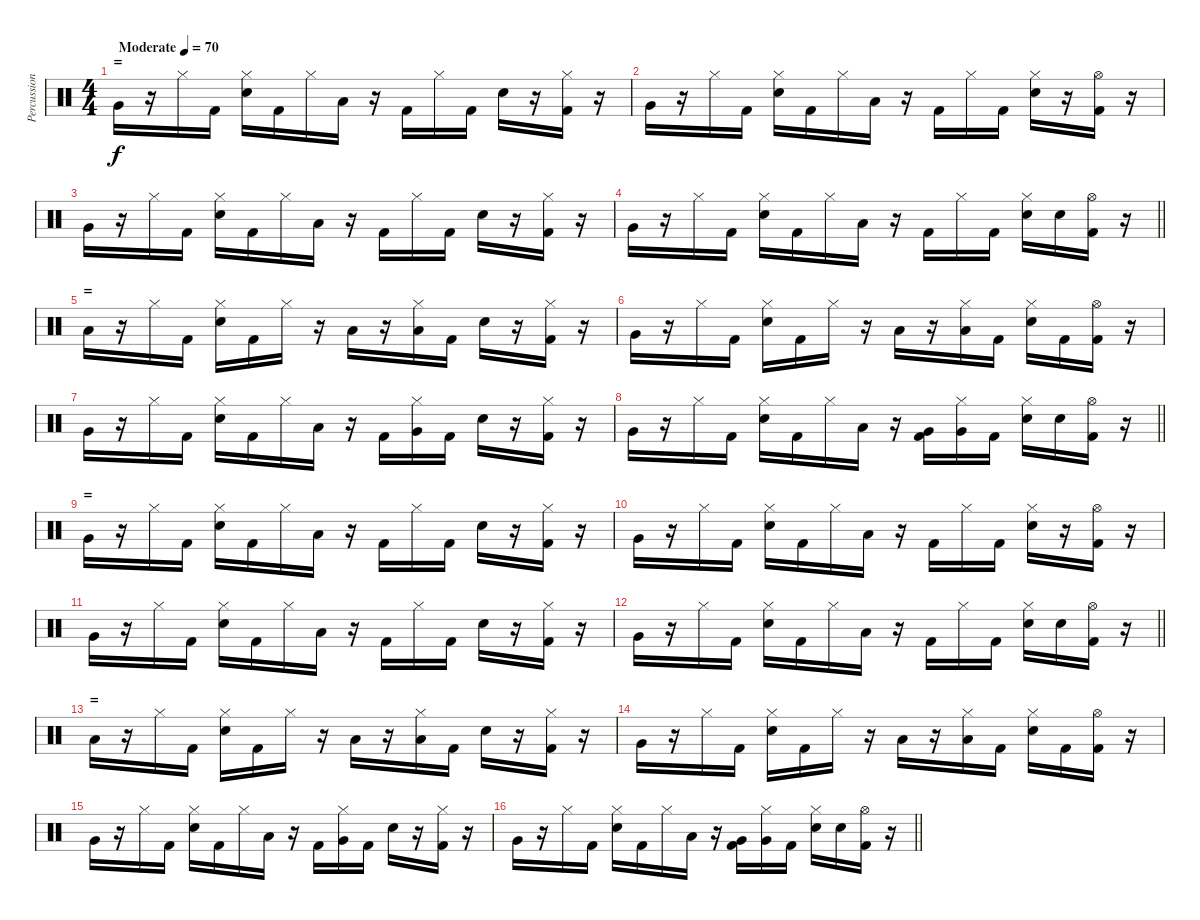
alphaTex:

\track ("Percussion" "Percussion") {instrument percussion}
\staff {score}
\articulation defaults
\ts (4 4)
\section ("" "=")
\tempo (70 "Moderate")
\clef neutral
\ks c "Very Low Tom (hit)".16{dy f}
r.16 "Hi-Hat (closed)".16 "Kick (hit) 2".16 ("Electric Snare (hit)" "Hi-Hat (closed)").16 "Kick (hit) 2".16 "Hi-Hat (closed)".16 "Low Floor Tom (hit)".16 r.16 "Kick (hit) 2".16 "Hi-Hat (closed)".16 "Kick (hit) 2".16 "Electric Snare (hit)".16 r.16 ("Kick (hit) 2" "Hi-Hat (closed)").16 r.16 |
"Very Low Tom (hit)".16 r.16 "Hi-Hat (closed)".16 "Kick (hit) 2".16 ("Electric Snare (hit)" "Hi-Hat (closed)").16 "Kick (hit) 2".16 "Hi-Hat (closed)".16 "Low Floor Tom (hit)".16 r.16 "Kick (hit) 2".16 "Hi-Hat (closed)".16 "Kick (hit) 2".16 ("Electric Snare (hit)" "Hi-Hat (closed)").16 r.16 ("Kick (hit) 2" "Hi-Hat (open)").16 r.16 |
"Very Low Tom (hit)".16 r.16 "Hi-Hat (closed)".16 "Kick (hit) 2".16 ("Electric Snare (hit)" "Hi-Hat (closed)").16 "Kick (hit) 2".16 "Hi-Hat (closed)".16 "Low Floor Tom (hit)".16 r.16 "Kick (hit) 2".16 "Hi-Hat (closed)".16 "Kick (hit) 2".16 "Electric Snare (hit)".16 r.16 ("Kick (hit) 2" "Hi-Hat (closed)").16 r.16 |
\barLineRight lightlight "Very Low Tom (hit)".16
r.16 "Hi-Hat (closed)".16 "Kick (hit) 2".16 ("Electric Snare (hit)" "Hi-Hat (closed)").16 "Kick (hit) 2".16 "Hi-Hat (closed)".16 "Low Floor Tom (hit)".16 r.16 "Kick (hit) 2".16 "Hi-Hat (closed)".16 "Kick (hit) 2".16 ("Electric Snare (hit)" "Hi-Hat (closed)").16 "Electric Snare (hit)".16 ("Kick (hit) 2" "Hi-Hat (open)").16 r.16 |
\section ("" "=")
"Low Floor Tom (hit)".16 r.16 "Hi-Hat (closed)".16 "Kick (hit) 2".16 ("Electric Snare (hit)" "Hi-Hat (closed)").16 "Kick (hit) 2".16 "Hi-Hat (closed)".16 r.16 "Low Floor Tom (hit)".16 r.16 ("Low Floor Tom (hit)" "Hi-Hat (closed)").16 "Kick (hit) 2".16 "Electric Snare (hit)".16 r.16 ("Kick (hit) 2" "Hi-Hat (closed)").16 r.16 |
"Very Low Tom (hit)".16 r.16 "Hi-Hat (closed)".16 "Kick (hit) 2".16 ("Electric Snare (hit)" "Hi-Hat (closed)").16 "Kick (hit) 2".16 "Hi-Hat (closed)".16 r.16 "Low Floor Tom (hit)".16 r.16 ("Low Floor Tom (hit)" "Hi-Hat (closed)").16 "Kick (hit) 2".16 ("Electric Snare (hit)" "Hi-Hat (closed)").16 "Kick (hit) 2".16 ("Kick (hit) 2" "Hi-Hat (open)").16 r.16 |
"Very Low Tom (hit)".16 r.16 "Hi-Hat (closed)".16 "Kick (hit) 2".16 ("Electric Snare (hit)" "Hi-Hat (closed)").16 "Kick (hit) 2".16 "Hi-Hat (closed)".16 "Low Floor Tom (hit)".16 r.16 "Kick (hit) 2".16 ("Very Low Tom (hit)" "Hi-Hat (closed)").16 "Kick (hit) 2".16 "Electric Snare (hit)".16 r.16 ("Kick (hit) 2" "Hi-Hat (closed)").16 r.16 |
\barLineRight lightlight "Very Low Tom (hit)".16
r.16 "Hi-Hat (closed)".16 "Kick (hit) 2".16 ("Electric Snare (hit)" "Hi-Hat (closed)").16 "Kick (hit) 2".16 "Hi-Hat (closed)".16 "Low Floor Tom (hit)".16 r.16 ("Kick (hit) 2" "Very Low Tom (hit)").16 ("Very Low Tom (hit)" "Hi-Hat (closed)").16 "Kick (hit) 2".16 ("Electric Snare (hit)" "Hi-Hat (closed)").16 "Electric Snare (hit)".16 ("Kick (hit) 2" "Hi-Hat (open)").16 r.16 |
\section ("" "=")
"Very Low Tom (hit)".16 r.16 "Hi-Hat (closed)".16 "Kick (hit) 2".16 ("Electric Snare (hit)" "Hi-Hat (closed)").16 "Kick (hit) 2".16 "Hi-Hat (closed)".16 "Low Floor Tom (hit)".16 r.16 "Kick (hit) 2".16 "Hi-Hat (closed)".16 "Kick (hit) 2".16 "Electric Snare (hit)".16 r.16 ("Kick (hit) 2" "Hi-Hat (closed)").16 r.16 |
"Very Low Tom (hit)".16 r.16 "Hi-Hat (closed)".16 "Kick (hit) 2".16 ("Electric Snare (hit)" "Hi-Hat (closed)").16 "Kick (hit) 2".16 "Hi-Hat (closed)".16 "Low Floor Tom (hit)".16 r.16 "Kick (hit) 2".16 "Hi-Hat (closed)".16 "Kick (hit) 2".16 ("Electric Snare (hit)" "Hi-Hat (closed)").16 r.16 ("Kick (hit) 2" "Hi-Hat (open)").16 r.16 |
"Very Low Tom (hit)".16 r.16 "Hi-Hat (closed)".16 "Kick (hit) 2".16 ("Electric Snare (hit)" "Hi-Hat (closed)").16 "Kick (hit) 2".16 "Hi-Hat (closed)".16 "Low Floor Tom (hit)".16 r.16 "Kick (hit) 2".16 "Hi-Hat (closed)".16 "Kick (hit) 2".16 "Electric Snare (hit)".16 r.16 ("Kick (hit) 2" "Hi-Hat (closed)").16 r.16 |
\barLineRight lightlight "Very Low Tom (hit)".16
r.16 "Hi-Hat (closed)".16 "Kick (hit) 2".16 ("Electric Snare (hit)" "Hi-Hat (closed)").16 "Kick (hit) 2".16 "Hi-Hat (closed)".16 "Low Floor Tom (hit)".16 r.16 "Kick (hit) 2".16 "Hi-Hat (closed)".16 "Kick (hit) 2".16 ("Electric Snare (hit)" "Hi-Hat (closed)").16 "Electric Snare (hit)".16 ("Kick (hit) 2" "Hi-Hat (open)").16 r.16 |
\section ("" "=")
"Low Floor Tom (hit)".16 r.16 "Hi-Hat (closed)".16 "Kick (hit) 2".16 ("Electric Snare (hit)" "Hi-Hat (closed)").16 "Kick (hit) 2".16 "Hi-Hat (closed)".16 r.16 "Low Floor Tom (hit)".16 r.16 ("Low Floor Tom (hit)" "Hi-Hat (closed)").16 "Kick (hit) 2".16 "Electric Snare (hit)".16 r.16 ("Kick (hit) 2" "Hi-Hat (closed)").16 r.16 |
"Very Low Tom (hit)".16 r.16 "Hi-Hat (closed)".16 "Kick (hit) 2".16 ("Electric Snare (hit)" "Hi-Hat (closed)").16 "Kick (hit) 2".16 "Hi-Hat (closed)".16 r.16 "Low Floor Tom (hit)".16 r.16 ("Low Floor Tom (hit)" "Hi-Hat (closed)").16 "Kick (hit) 2".16 ("Electric Snare (hit)" "Hi-Hat (closed)").16 "Kick (hit) 2".16 ("Kick (hit) 2" "Hi-Hat (open)").16 r.16 |
"Very Low Tom (hit)".16 r.16 "Hi-Hat (closed)".16 "Kick (hit) 2".16 ("Electric Snare (hit)" "Hi-Hat (closed)").16 "Kick (hit) 2".16 "Hi-Hat (closed)".16 "Low Floor Tom (hit)".16 r.16 "Kick (hit) 2".16 ("Very Low Tom (hit)" "Hi-Hat (closed)").16 "Kick (hit) 2".16 "Electric Snare (hit)".16 r.16 ("Kick (hit) 2" "Hi-Hat (closed)").16 r.16 |
\barLineRight lightlight "Very Low Tom (hit)".16
r.16 "Hi-Hat (closed)".16 "Kick (hit) 2".16 ("Electric Snare (hit)" "Hi-Hat (closed)").16 "Kick (hit) 2".16 "Hi-Hat (closed)".16 "Low Floor Tom (hit)".16 r.16 ("Kick (hit) 2" "Very Low Tom (hit)").16 ("Very Low Tom (hit)" "Hi-Hat (closed)").16 "Kick (hit) 2".16 ("Electric Snare (hit)" "Hi-Hat (closed)").16 "Electric Snare (hit)".16 ("Kick (hit) 2" "Hi-Hat (open)").16 r.16
